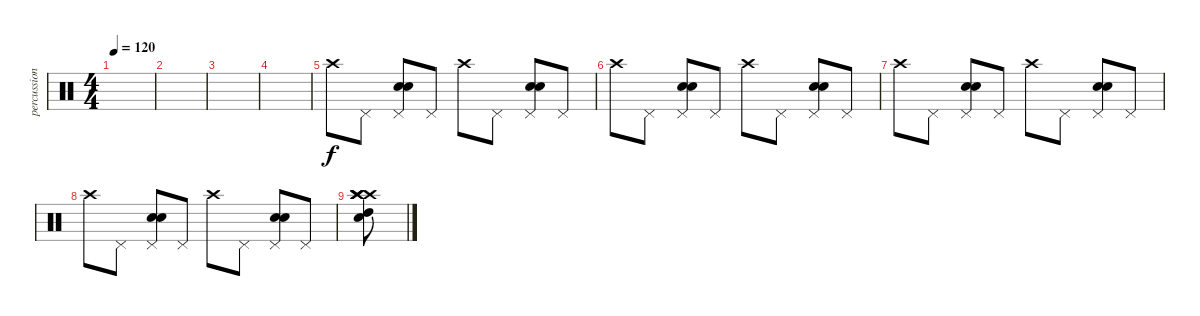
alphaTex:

\track ("percussion" "percussion") {instrument percussion}
\staff {score}
\articulation defaults
\ts (4 4)
\tempo 120
\clef neutral
\ks c
|
|
|
|
"Crash high (hit)".8 "Pedal Hi-Hat (hit)".8 ("Pedal Hi-Hat (hit)" "Snare (hit) 2" "Snare (hit) 2").8 "Pedal Hi-Hat (hit)".8 "Crash high (hit)".8 "Pedal Hi-Hat (hit)".8 ("Pedal Hi-Hat (hit)" "Snare (hit) 2" "Snare (hit) 2").8 "Pedal Hi-Hat (hit)".8 |
"Crash high (hit)".8 "Pedal Hi-Hat (hit)".8 ("Pedal Hi-Hat (hit)" "Snare (hit) 2" "Snare (hit) 2").8 "Pedal Hi-Hat (hit)".8 "Crash high (hit)".8 "Pedal Hi-Hat (hit)".8 ("Pedal Hi-Hat (hit)" "Snare (hit) 2" "Snare (hit) 2").8 "Pedal Hi-Hat (hit)".8 |
"Crash high (hit)".8 "Pedal Hi-Hat (hit)".8 ("Pedal Hi-Hat (hit)" "Snare (hit) 2" "Snare (hit) 2").8 "Pedal Hi-Hat (hit)".8 "Crash high (hit)".8 "Pedal Hi-Hat (hit)".8 ("Pedal Hi-Hat (hit)" "Snare (hit) 2" "Snare (hit) 2").8 "Pedal Hi-Hat (hit)".8 |
"Crash high (hit)".8 "Pedal Hi-Hat (hit)".8 ("Pedal Hi-Hat (hit)" "Snare (hit) 2" "Snare (hit) 2").8 "Pedal Hi-Hat (hit)".8 "Crash high (hit)".8 "Pedal Hi-Hat (hit)".8 ("Pedal Hi-Hat (hit)" "Snare (hit) 2" "Snare (hit) 2").8 "Pedal Hi-Hat (hit)".8 |
("Crash high (hit)" "Crash high (hit)" "Crash high (hit)" "Crash high (hit)" "High Tom (hit)" "Snare (hit) 2").8
